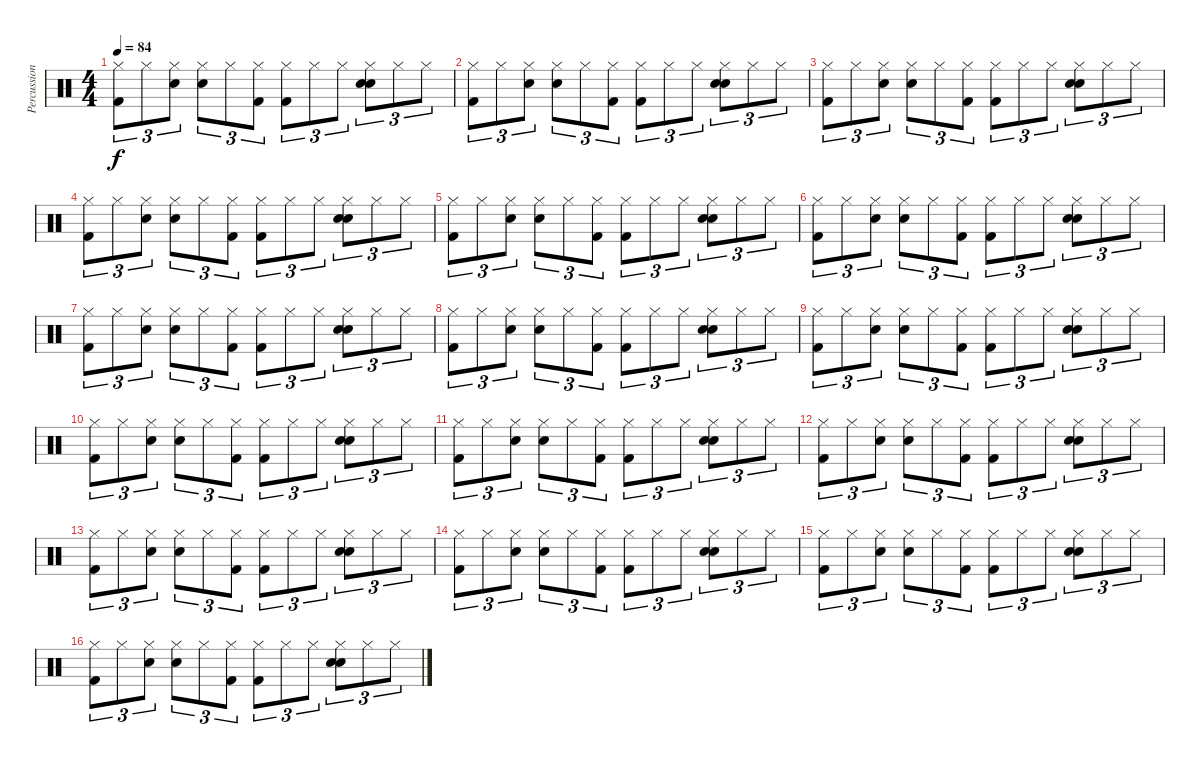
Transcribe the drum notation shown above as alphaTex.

\track ("Percussion" "Percussion") {instrument percussion}
\staff {score}
\articulation defaults
\ts (4 4)
\tempo 84
\clef neutral
\ks c
("Hi-Hat (closed)" "Kick (hit) 2").8{tu (3 2) dy f} "Hi-Hat (closed)".8{tu (3 2)} ("Hi-Hat (closed)" "Electric Snare (hit)").8{tu (3 2)} ("Hi-Hat (closed)" "Hand Clap (hit)").8{tu (3 2)} "Hi-Hat (closed)".8{tu (3 2)} ("Hi-Hat (closed)" "Kick (hit) 2").8{tu (3 2)} ("Hi-Hat (closed)" "Kick (hit) 2").8{tu (3 2)} "Hi-Hat (closed)".8{tu (3 2)} "Hi-Hat (closed)".8{tu (3 2)} ("Hi-Hat (closed)" "Electric Snare (hit)" "Hand Clap (hit)").8{tu (3 2)} "Hi-Hat (closed)".8{tu (3 2)} "Hi-Hat (closed)".8{tu (3 2)} |
("Hi-Hat (closed)" "Kick (hit) 2").8{tu (3 2)} "Hi-Hat (closed)".8{tu (3 2)} ("Hi-Hat (closed)" "Electric Snare (hit)").8{tu (3 2)} ("Hi-Hat (closed)" "Hand Clap (hit)").8{tu (3 2)} "Hi-Hat (closed)".8{tu (3 2)} ("Hi-Hat (closed)" "Kick (hit) 2").8{tu (3 2)} ("Hi-Hat (closed)" "Kick (hit) 2").8{tu (3 2)} "Hi-Hat (closed)".8{tu (3 2)} "Hi-Hat (closed)".8{tu (3 2)} ("Hi-Hat (closed)" "Electric Snare (hit)" "Hand Clap (hit)").8{tu (3 2)} "Hi-Hat (closed)".8{tu (3 2)} "Hi-Hat (closed)".8{tu (3 2)} |
("Hi-Hat (closed)" "Kick (hit) 2").8{tu (3 2)} "Hi-Hat (closed)".8{tu (3 2)} ("Hi-Hat (closed)" "Electric Snare (hit)").8{tu (3 2)} ("Hi-Hat (closed)" "Hand Clap (hit)").8{tu (3 2)} "Hi-Hat (closed)".8{tu (3 2)} ("Hi-Hat (closed)" "Kick (hit) 2").8{tu (3 2)} ("Hi-Hat (closed)" "Kick (hit) 2").8{tu (3 2)} "Hi-Hat (closed)".8{tu (3 2)} "Hi-Hat (closed)".8{tu (3 2)} ("Hi-Hat (closed)" "Electric Snare (hit)" "Hand Clap (hit)").8{tu (3 2)} "Hi-Hat (closed)".8{tu (3 2)} "Hi-Hat (closed)".8{tu (3 2)} |
("Hi-Hat (closed)" "Kick (hit) 2").8{tu (3 2)} "Hi-Hat (closed)".8{tu (3 2)} ("Hi-Hat (closed)" "Electric Snare (hit)").8{tu (3 2)} ("Hi-Hat (closed)" "Hand Clap (hit)").8{tu (3 2)} "Hi-Hat (closed)".8{tu (3 2)} ("Hi-Hat (closed)" "Kick (hit) 2").8{tu (3 2)} ("Hi-Hat (closed)" "Kick (hit) 2").8{tu (3 2)} "Hi-Hat (closed)".8{tu (3 2)} "Hi-Hat (closed)".8{tu (3 2)} ("Hi-Hat (closed)" "Electric Snare (hit)" "Hand Clap (hit)").8{tu (3 2)} "Hi-Hat (closed)".8{tu (3 2)} "Hi-Hat (closed)".8{tu (3 2)} |
("Hi-Hat (closed)" "Kick (hit) 2").8{tu (3 2)} "Hi-Hat (closed)".8{tu (3 2)} ("Hi-Hat (closed)" "Electric Snare (hit)").8{tu (3 2)} ("Hi-Hat (closed)" "Hand Clap (hit)").8{tu (3 2)} "Hi-Hat (closed)".8{tu (3 2)} ("Hi-Hat (closed)" "Kick (hit) 2").8{tu (3 2)} ("Hi-Hat (closed)" "Kick (hit) 2").8{tu (3 2)} "Hi-Hat (closed)".8{tu (3 2)} "Hi-Hat (closed)".8{tu (3 2)} ("Hi-Hat (closed)" "Electric Snare (hit)" "Hand Clap (hit)").8{tu (3 2)} "Hi-Hat (closed)".8{tu (3 2)} "Hi-Hat (closed)".8{tu (3 2)} |
("Hi-Hat (closed)" "Kick (hit) 2").8{tu (3 2)} "Hi-Hat (closed)".8{tu (3 2)} ("Hi-Hat (closed)" "Electric Snare (hit)").8{tu (3 2)} ("Hi-Hat (closed)" "Hand Clap (hit)").8{tu (3 2)} "Hi-Hat (closed)".8{tu (3 2)} ("Hi-Hat (closed)" "Kick (hit) 2").8{tu (3 2)} ("Hi-Hat (closed)" "Kick (hit) 2").8{tu (3 2)} "Hi-Hat (closed)".8{tu (3 2)} "Hi-Hat (closed)".8{tu (3 2)} ("Hi-Hat (closed)" "Electric Snare (hit)" "Hand Clap (hit)").8{tu (3 2)} "Hi-Hat (closed)".8{tu (3 2)} "Hi-Hat (closed)".8{tu (3 2)} |
("Hi-Hat (closed)" "Kick (hit) 2").8{tu (3 2)} "Hi-Hat (closed)".8{tu (3 2)} ("Hi-Hat (closed)" "Electric Snare (hit)").8{tu (3 2)} ("Hi-Hat (closed)" "Hand Clap (hit)").8{tu (3 2)} "Hi-Hat (closed)".8{tu (3 2)} ("Hi-Hat (closed)" "Kick (hit) 2").8{tu (3 2)} ("Hi-Hat (closed)" "Kick (hit) 2").8{tu (3 2)} "Hi-Hat (closed)".8{tu (3 2)} "Hi-Hat (closed)".8{tu (3 2)} ("Hi-Hat (closed)" "Electric Snare (hit)" "Hand Clap (hit)").8{tu (3 2)} "Hi-Hat (closed)".8{tu (3 2)} "Hi-Hat (closed)".8{tu (3 2)} |
("Hi-Hat (closed)" "Kick (hit) 2").8{tu (3 2)} "Hi-Hat (closed)".8{tu (3 2)} ("Hi-Hat (closed)" "Electric Snare (hit)").8{tu (3 2)} ("Hi-Hat (closed)" "Hand Clap (hit)").8{tu (3 2)} "Hi-Hat (closed)".8{tu (3 2)} ("Hi-Hat (closed)" "Kick (hit) 2").8{tu (3 2)} ("Hi-Hat (closed)" "Kick (hit) 2").8{tu (3 2)} "Hi-Hat (closed)".8{tu (3 2)} "Hi-Hat (closed)".8{tu (3 2)} ("Hi-Hat (closed)" "Electric Snare (hit)" "Hand Clap (hit)").8{tu (3 2)} "Hi-Hat (closed)".8{tu (3 2)} "Hi-Hat (closed)".8{tu (3 2)} |
("Hi-Hat (closed)" "Kick (hit) 2").8{tu (3 2)} "Hi-Hat (closed)".8{tu (3 2)} ("Hi-Hat (closed)" "Electric Snare (hit)").8{tu (3 2)} ("Hi-Hat (closed)" "Hand Clap (hit)").8{tu (3 2)} "Hi-Hat (closed)".8{tu (3 2)} ("Hi-Hat (closed)" "Kick (hit) 2").8{tu (3 2)} ("Hi-Hat (closed)" "Kick (hit) 2").8{tu (3 2)} "Hi-Hat (closed)".8{tu (3 2)} "Hi-Hat (closed)".8{tu (3 2)} ("Hi-Hat (closed)" "Electric Snare (hit)" "Hand Clap (hit)").8{tu (3 2)} "Hi-Hat (closed)".8{tu (3 2)} "Hi-Hat (closed)".8{tu (3 2)} |
("Hi-Hat (closed)" "Kick (hit) 2").8{tu (3 2)} "Hi-Hat (closed)".8{tu (3 2)} ("Hi-Hat (closed)" "Electric Snare (hit)").8{tu (3 2)} ("Hi-Hat (closed)" "Hand Clap (hit)").8{tu (3 2)} "Hi-Hat (closed)".8{tu (3 2)} ("Hi-Hat (closed)" "Kick (hit) 2").8{tu (3 2)} ("Hi-Hat (closed)" "Kick (hit) 2").8{tu (3 2)} "Hi-Hat (closed)".8{tu (3 2)} "Hi-Hat (closed)".8{tu (3 2)} ("Hi-Hat (closed)" "Electric Snare (hit)" "Hand Clap (hit)").8{tu (3 2)} "Hi-Hat (closed)".8{tu (3 2)} "Hi-Hat (closed)".8{tu (3 2)} |
("Hi-Hat (closed)" "Kick (hit) 2").8{tu (3 2)} "Hi-Hat (closed)".8{tu (3 2)} ("Hi-Hat (closed)" "Electric Snare (hit)").8{tu (3 2)} ("Hi-Hat (closed)" "Hand Clap (hit)").8{tu (3 2)} "Hi-Hat (closed)".8{tu (3 2)} ("Hi-Hat (closed)" "Kick (hit) 2").8{tu (3 2)} ("Hi-Hat (closed)" "Kick (hit) 2").8{tu (3 2)} "Hi-Hat (closed)".8{tu (3 2)} "Hi-Hat (closed)".8{tu (3 2)} ("Hi-Hat (closed)" "Electric Snare (hit)" "Hand Clap (hit)").8{tu (3 2)} "Hi-Hat (closed)".8{tu (3 2)} "Hi-Hat (closed)".8{tu (3 2)} |
("Hi-Hat (closed)" "Kick (hit) 2").8{tu (3 2)} "Hi-Hat (closed)".8{tu (3 2)} ("Hi-Hat (closed)" "Electric Snare (hit)").8{tu (3 2)} ("Hi-Hat (closed)" "Hand Clap (hit)").8{tu (3 2)} "Hi-Hat (closed)".8{tu (3 2)} ("Hi-Hat (closed)" "Kick (hit) 2").8{tu (3 2)} ("Hi-Hat (closed)" "Kick (hit) 2").8{tu (3 2)} "Hi-Hat (closed)".8{tu (3 2)} "Hi-Hat (closed)".8{tu (3 2)} ("Hi-Hat (closed)" "Electric Snare (hit)" "Hand Clap (hit)").8{tu (3 2)} "Hi-Hat (closed)".8{tu (3 2)} "Hi-Hat (closed)".8{tu (3 2)} |
("Hi-Hat (closed)" "Kick (hit) 2").8{tu (3 2)} "Hi-Hat (closed)".8{tu (3 2)} ("Hi-Hat (closed)" "Electric Snare (hit)").8{tu (3 2)} ("Hi-Hat (closed)" "Hand Clap (hit)").8{tu (3 2)} "Hi-Hat (closed)".8{tu (3 2)} ("Hi-Hat (closed)" "Kick (hit) 2").8{tu (3 2)} ("Hi-Hat (closed)" "Kick (hit) 2").8{tu (3 2)} "Hi-Hat (closed)".8{tu (3 2)} "Hi-Hat (closed)".8{tu (3 2)} ("Hi-Hat (closed)" "Electric Snare (hit)" "Hand Clap (hit)").8{tu (3 2)} "Hi-Hat (closed)".8{tu (3 2)} "Hi-Hat (closed)".8{tu (3 2)} |
("Hi-Hat (closed)" "Kick (hit) 2").8{tu (3 2)} "Hi-Hat (closed)".8{tu (3 2)} ("Hi-Hat (closed)" "Electric Snare (hit)").8{tu (3 2)} ("Hi-Hat (closed)" "Hand Clap (hit)").8{tu (3 2)} "Hi-Hat (closed)".8{tu (3 2)} ("Hi-Hat (closed)" "Kick (hit) 2").8{tu (3 2)} ("Hi-Hat (closed)" "Kick (hit) 2").8{tu (3 2)} "Hi-Hat (closed)".8{tu (3 2)} "Hi-Hat (closed)".8{tu (3 2)} ("Hi-Hat (closed)" "Electric Snare (hit)" "Hand Clap (hit)").8{tu (3 2)} "Hi-Hat (closed)".8{tu (3 2)} "Hi-Hat (closed)".8{tu (3 2)} |
("Hi-Hat (closed)" "Kick (hit) 2").8{tu (3 2)} "Hi-Hat (closed)".8{tu (3 2)} ("Hi-Hat (closed)" "Electric Snare (hit)").8{tu (3 2)} ("Hi-Hat (closed)" "Hand Clap (hit)").8{tu (3 2)} "Hi-Hat (closed)".8{tu (3 2)} ("Hi-Hat (closed)" "Kick (hit) 2").8{tu (3 2)} ("Hi-Hat (closed)" "Kick (hit) 2").8{tu (3 2)} "Hi-Hat (closed)".8{tu (3 2)} "Hi-Hat (closed)".8{tu (3 2)} ("Hi-Hat (closed)" "Electric Snare (hit)" "Hand Clap (hit)").8{tu (3 2)} "Hi-Hat (closed)".8{tu (3 2)} "Hi-Hat (closed)".8{tu (3 2)} |
("Hi-Hat (closed)" "Kick (hit) 2").8{tu (3 2)} "Hi-Hat (closed)".8{tu (3 2)} ("Hi-Hat (closed)" "Electric Snare (hit)").8{tu (3 2)} ("Hi-Hat (closed)" "Hand Clap (hit)").8{tu (3 2)} "Hi-Hat (closed)".8{tu (3 2)} ("Hi-Hat (closed)" "Kick (hit) 2").8{tu (3 2)} ("Hi-Hat (closed)" "Kick (hit) 2").8{tu (3 2)} "Hi-Hat (closed)".8{tu (3 2)} "Hi-Hat (closed)".8{tu (3 2)} ("Hi-Hat (closed)" "Electric Snare (hit)" "Hand Clap (hit)").8{tu (3 2)} "Hi-Hat (closed)".8{tu (3 2)} "Hi-Hat (closed)".8{tu (3 2)}
